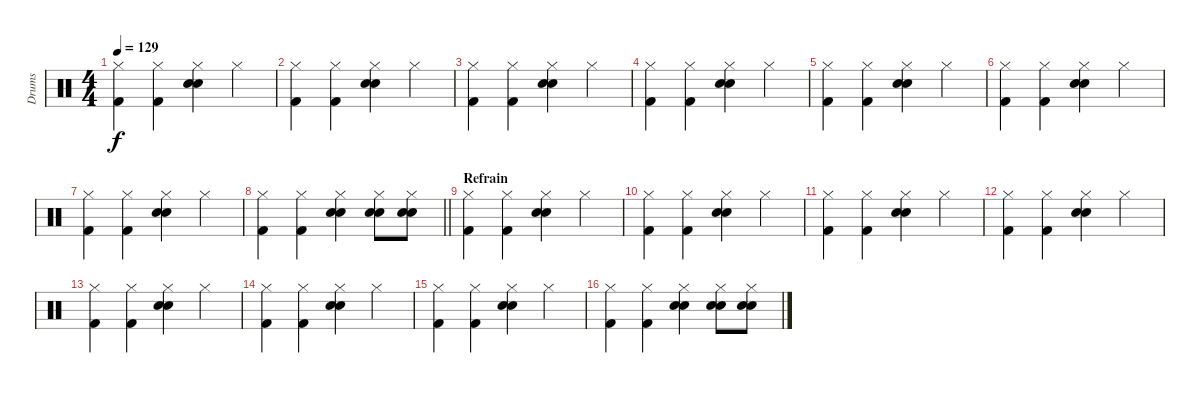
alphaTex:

\track ("Drums" "Drums") {instrument percussion}
\staff {score}
\articulation defaults
\ts (4 4)
\tempo 129
\clef neutral
\ks c
("Kick (hit) 2" "Hi-Hat (closed)").4{dy f} ("Kick (hit) 2" "Hi-Hat (closed)").4 ("Snare (hit) 2" "Electric Snare (hit)" "Hi-Hat (closed)").4 "Hi-Hat (closed)".4 |
("Kick (hit) 2" "Hi-Hat (closed)").4 ("Kick (hit) 2" "Hi-Hat (closed)").4 ("Snare (hit) 2" "Electric Snare (hit)" "Hi-Hat (closed)").4 "Hi-Hat (closed)".4 |
("Kick (hit) 2" "Hi-Hat (closed)").4 ("Kick (hit) 2" "Hi-Hat (closed)").4 ("Snare (hit) 2" "Electric Snare (hit)" "Hi-Hat (closed)").4 "Hi-Hat (closed)".4 |
("Kick (hit) 2" "Hi-Hat (closed)").4 ("Kick (hit) 2" "Hi-Hat (closed)").4 ("Snare (hit) 2" "Electric Snare (hit)" "Hi-Hat (closed)").4 "Hi-Hat (closed)".4 |
("Kick (hit) 2" "Hi-Hat (closed)").4 ("Kick (hit) 2" "Hi-Hat (closed)").4 ("Snare (hit) 2" "Electric Snare (hit)" "Hi-Hat (closed)").4 "Hi-Hat (closed)".4 |
("Kick (hit) 2" "Hi-Hat (closed)").4 ("Kick (hit) 2" "Hi-Hat (closed)").4 ("Snare (hit) 2" "Electric Snare (hit)" "Hi-Hat (closed)").4 "Hi-Hat (closed)".4 |
("Kick (hit) 2" "Hi-Hat (closed)").4 ("Kick (hit) 2" "Hi-Hat (closed)").4 ("Snare (hit) 2" "Electric Snare (hit)" "Hi-Hat (closed)").4 "Hi-Hat (closed)".4 |
\barLineRight lightlight
("Kick (hit) 2" "Hi-Hat (closed)").4 ("Kick (hit) 2" "Hi-Hat (closed)").4 ("Snare (hit) 2" "Electric Snare (hit)" "Hi-Hat (closed)").4 ("Electric Snare (hit)" "Snare (hit) 2" "Hi-Hat (closed)").8 ("Electric Snare (hit)" "Snare (hit) 2" "Hi-Hat (closed)").8 |
\section ("" "Refrain")
("Kick (hit) 2" "Hi-Hat (closed)").4 ("Kick (hit) 2" "Hi-Hat (closed)").4 ("Snare (hit) 2" "Electric Snare (hit)" "Hi-Hat (closed)").4 "Hi-Hat (closed)".4 |
("Kick (hit) 2" "Hi-Hat (closed)").4 ("Kick (hit) 2" "Hi-Hat (closed)").4 ("Snare (hit) 2" "Electric Snare (hit)" "Hi-Hat (closed)").4 "Hi-Hat (closed)".4 |
("Kick (hit) 2" "Hi-Hat (closed)").4 ("Kick (hit) 2" "Hi-Hat (closed)").4 ("Snare (hit) 2" "Electric Snare (hit)" "Hi-Hat (closed)").4 "Hi-Hat (closed)".4 |
("Kick (hit) 2" "Hi-Hat (closed)").4 ("Kick (hit) 2" "Hi-Hat (closed)").4 ("Snare (hit) 2" "Electric Snare (hit)" "Hi-Hat (closed)").4 "Hi-Hat (closed)".4 |
("Kick (hit) 2" "Hi-Hat (closed)").4 ("Kick (hit) 2" "Hi-Hat (closed)").4 ("Snare (hit) 2" "Electric Snare (hit)" "Hi-Hat (closed)").4 "Hi-Hat (closed)".4 |
("Kick (hit) 2" "Hi-Hat (closed)").4 ("Kick (hit) 2" "Hi-Hat (closed)").4 ("Snare (hit) 2" "Electric Snare (hit)" "Hi-Hat (closed)").4 "Hi-Hat (closed)".4 |
("Kick (hit) 2" "Hi-Hat (closed)").4 ("Kick (hit) 2" "Hi-Hat (closed)").4 ("Snare (hit) 2" "Electric Snare (hit)" "Hi-Hat (closed)").4 "Hi-Hat (closed)".4 |
("Kick (hit) 2" "Hi-Hat (closed)").4 ("Kick (hit) 2" "Hi-Hat (closed)").4 ("Snare (hit) 2" "Electric Snare (hit)" "Hi-Hat (closed)").4 ("Electric Snare (hit)" "Snare (hit) 2" "Hi-Hat (closed)").8 ("Electric Snare (hit)" "Snare (hit) 2" "Hi-Hat (closed)").8
